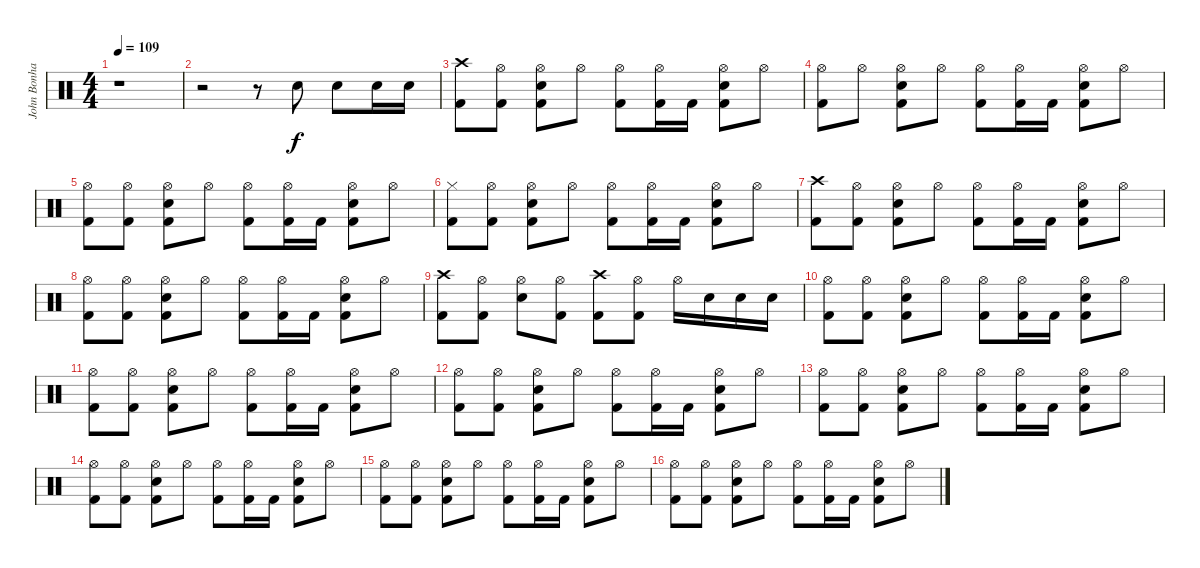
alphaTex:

\track ("John Bonham" "John Bonha") {instrument percussion}
\staff {score}
\articulation defaults
\ts (4 4)
\tempo 109
\clef neutral
\ks c
r.1{dy f} |
r.2 r.8 "Electric Snare (hit)".8 "Snare (hit) 2".8 "Electric Snare (hit)".16 "Electric Snare (hit)".16 |
("Kick (hit) 2" "Crash high (hit)").8 ("Kick (hit) 2" "Hi-Hat (open)").8 ("Kick (hit) 2" "Snare (hit) 2" "Hi-Hat (open)").8 "Hi-Hat (open)".8 ("Kick (hit) 2" "Hi-Hat (open)").8 ("Kick (hit) 2" "Hi-Hat (open)").16 "Kick (hit) 2".16 ("Kick (hit) 2" "Electric Snare (hit)" "Hi-Hat (open)").8 "Hi-Hat (open)".8 |
("Kick (hit) 2" "Hi-Hat (open)").8 "Hi-Hat (open)".8 ("Kick (hit) 2" "Snare (hit) 2" "Hi-Hat (open)").8 "Hi-Hat (open)".8 ("Kick (hit) 2" "Hi-Hat (open)").8 ("Kick (hit) 2" "Hi-Hat (open)").16 "Kick (hit) 2".16 ("Kick (hit) 2" "Electric Snare (hit)" "Hi-Hat (open)").8 "Hi-Hat (open)".8 |
("Kick (hit) 2" "Hi-Hat (open)").8 ("Kick (hit) 2" "Hi-Hat (open)").8 ("Kick (hit) 2" "Snare (hit) 2" "Hi-Hat (open)").8 "Hi-Hat (open)".8 ("Kick (hit) 2" "Hi-Hat (open)").8 ("Kick (hit) 2" "Hi-Hat (open)").16 "Kick (hit) 2".16 ("Kick (hit) 2" "Electric Snare (hit)" "Hi-Hat (open)").8 "Hi-Hat (open)".8 |
("Kick (hit) 2" "Hi-Hat (closed)").8 ("Kick (hit) 2" "Hi-Hat (open)").8 ("Kick (hit) 2" "Snare (hit) 2" "Hi-Hat (open)").8 "Hi-Hat (open)".8 ("Kick (hit) 2" "Hi-Hat (open)").8 ("Kick (hit) 2" "Hi-Hat (open)").16 "Kick (hit) 2".16 ("Kick (hit) 2" "Electric Snare (hit)" "Hi-Hat (open)").8 "Hi-Hat (open)".8 |
("Kick (hit) 2" "Crash high (hit)").8 ("Kick (hit) 2" "Hi-Hat (open)").8 ("Kick (hit) 2" "Snare (hit) 2" "Hi-Hat (open)").8 "Hi-Hat (open)".8 ("Kick (hit) 2" "Hi-Hat (open)").8 ("Kick (hit) 2" "Hi-Hat (open)").16 "Kick (hit) 2".16 ("Kick (hit) 2" "Electric Snare (hit)" "Hi-Hat (open)").8 "Hi-Hat (open)".8 |
("Kick (hit) 2" "Hi-Hat (open)").8 ("Kick (hit) 2" "Hi-Hat (open)").8 ("Kick (hit) 2" "Snare (hit) 2" "Hi-Hat (open)").8 "Hi-Hat (open)".8 ("Kick (hit) 2" "Hi-Hat (open)").8 ("Kick (hit) 2" "Hi-Hat (open)").16 "Kick (hit) 2".16 ("Kick (hit) 2" "Electric Snare (hit)" "Hi-Hat (open)").8 "Hi-Hat (open)".8 |
("Kick (hit) 2" "Crash high (hit)").8 ("Kick (hit) 2" "Hi-Hat (open)").8 ("Electric Snare (hit)" "Hi-Hat (open)").8 ("Kick (hit) 2" "Hi-Hat (open)").8 ("Kick (hit) 2" "Crash high (hit)").8 ("Kick (hit) 2" "Hi-Hat (open)").8 "Hi-Hat (open)".16 "Electric Snare (hit)".16 "Electric Snare (hit)".16 "Snare (hit) 2".16 |
("Kick (hit) 2" "Hi-Hat (open)").8 ("Kick (hit) 2" "Hi-Hat (open)").8 ("Kick (hit) 2" "Snare (hit) 2" "Hi-Hat (open)").8 "Hi-Hat (open)".8 ("Kick (hit) 2" "Hi-Hat (open)").8 ("Kick (hit) 2" "Hi-Hat (open)").16 "Kick (hit) 2".16 ("Kick (hit) 2" "Electric Snare (hit)" "Hi-Hat (open)").8 "Hi-Hat (open)".8 |
("Kick (hit) 2" "Hi-Hat (open)").8 ("Kick (hit) 2" "Hi-Hat (open)").8 ("Kick (hit) 2" "Snare (hit) 2" "Hi-Hat (open)").8 "Hi-Hat (open)".8 ("Kick (hit) 2" "Hi-Hat (open)").8 ("Kick (hit) 2" "Hi-Hat (open)").16 "Kick (hit) 2".16 ("Kick (hit) 2" "Electric Snare (hit)" "Hi-Hat (open)").8 "Hi-Hat (open)".8 |
("Kick (hit) 2" "Hi-Hat (open)").8 ("Kick (hit) 2" "Hi-Hat (open)").8 ("Kick (hit) 2" "Snare (hit) 2" "Hi-Hat (open)").8 "Hi-Hat (open)".8 ("Kick (hit) 2" "Hi-Hat (open)").8 ("Kick (hit) 2" "Hi-Hat (open)").16 "Kick (hit) 2".16 ("Kick (hit) 2" "Electric Snare (hit)" "Hi-Hat (open)").8 "Hi-Hat (open)".8 |
("Kick (hit) 2" "Hi-Hat (open)").8 ("Kick (hit) 2" "Hi-Hat (open)").8 ("Kick (hit) 2" "Snare (hit) 2" "Hi-Hat (open)").8 "Hi-Hat (open)".8 ("Kick (hit) 2" "Hi-Hat (open)").8 ("Kick (hit) 2" "Hi-Hat (open)").16 "Kick (hit) 2".16 ("Kick (hit) 2" "Electric Snare (hit)" "Hi-Hat (open)").8 "Hi-Hat (open)".8 |
("Kick (hit) 2" "Hi-Hat (open)").8 ("Kick (hit) 2" "Hi-Hat (open)").8 ("Kick (hit) 2" "Snare (hit) 2" "Hi-Hat (open)").8 "Hi-Hat (open)".8 ("Kick (hit) 2" "Hi-Hat (open)").8 ("Kick (hit) 2" "Hi-Hat (open)").16 "Kick (hit) 2".16 ("Kick (hit) 2" "Electric Snare (hit)" "Hi-Hat (open)").8 "Hi-Hat (open)".8 |
("Kick (hit) 2" "Hi-Hat (open)").8 ("Kick (hit) 2" "Hi-Hat (open)").8 ("Kick (hit) 2" "Snare (hit) 2" "Hi-Hat (open)").8 "Hi-Hat (open)".8 ("Kick (hit) 2" "Hi-Hat (open)").8 ("Kick (hit) 2" "Hi-Hat (open)").16 "Kick (hit) 2".16 ("Kick (hit) 2" "Electric Snare (hit)" "Hi-Hat (open)").8 "Hi-Hat (open)".8 |
("Kick (hit) 2" "Hi-Hat (open)").8 ("Kick (hit) 2" "Hi-Hat (open)").8 ("Kick (hit) 2" "Snare (hit) 2" "Hi-Hat (open)").8 "Hi-Hat (open)".8 ("Kick (hit) 2" "Hi-Hat (open)").8 ("Kick (hit) 2" "Hi-Hat (open)").16 "Kick (hit) 2".16 ("Kick (hit) 2" "Electric Snare (hit)" "Hi-Hat (open)").8 "Hi-Hat (open)".8
